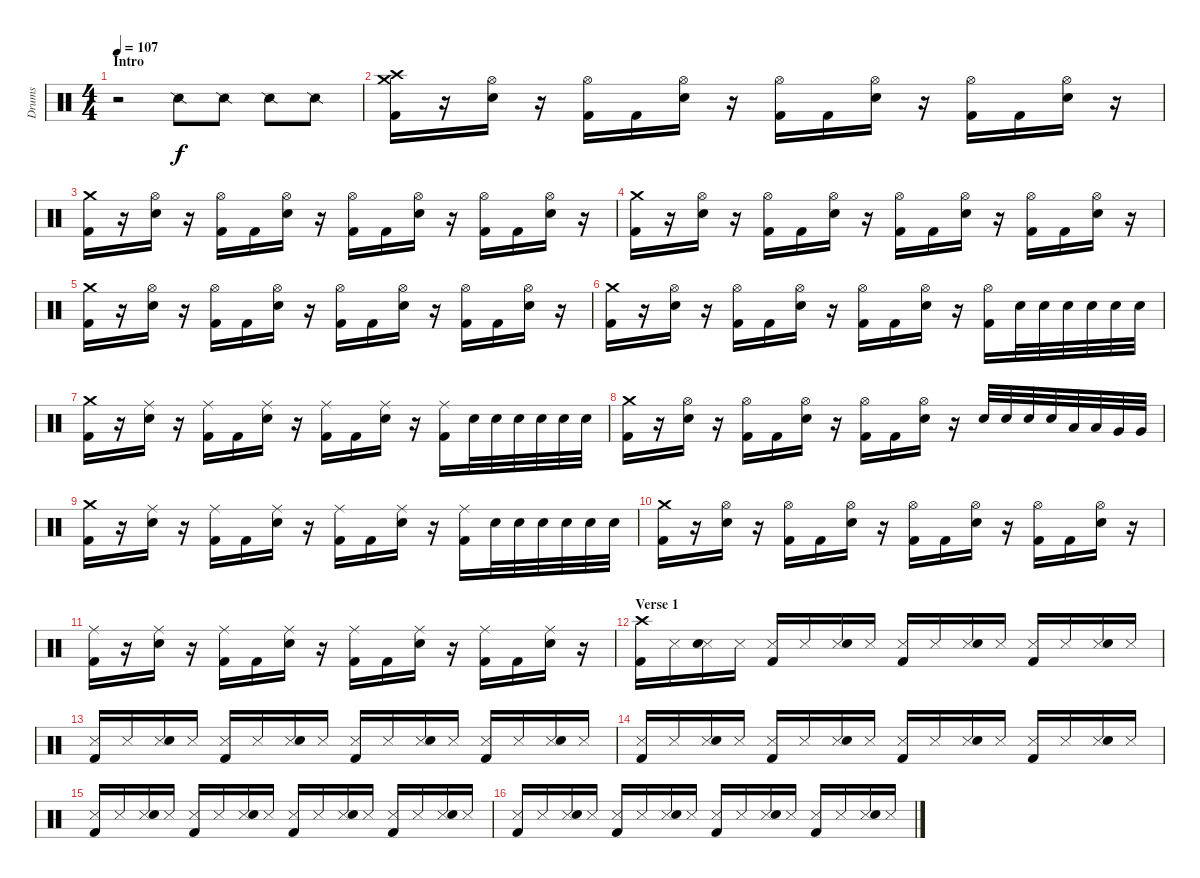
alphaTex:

\track ("Drums" "Drums") {instrument percussion}
\staff {score}
\articulation defaults
\ts (4 4)
\section ("" "Intro")
\tempo 107
\clef neutral
\ks c
r.2{dy f} "Snare (side stick) 2".8 "Snare (side stick) 2".8 "Snare (side stick) 2".8 "Snare (side stick) 2".8 |
("Crash high (hit)" "Crash medium (hit)" "Kick (hit) 2").16 r.16 ("Hi-Hat (open)" "Electric Snare (hit)").16 r.16 ("Hi-Hat (open)" "Kick (hit) 2").16 "Kick (hit) 2".16 ("Hi-Hat (open)" "Electric Snare (hit)").16 r.16 ("Hi-Hat (open)" "Kick (hit) 2").16 "Kick (hit) 2".16 ("Hi-Hat (open)" "Electric Snare (hit)").16 r.16 ("Hi-Hat (open)" "Kick (hit) 2").16 "Kick (hit) 2".16 ("Hi-Hat (open)" "Electric Snare (hit)").16 r.16 |
("Crash medium (hit)" "Kick (hit) 2").16 r.16 ("Hi-Hat (open)" "Electric Snare (hit)").16 r.16 ("Hi-Hat (open)" "Kick (hit) 2").16 "Kick (hit) 2".16 ("Hi-Hat (open)" "Electric Snare (hit)").16 r.16 ("Hi-Hat (open)" "Kick (hit) 2").16 "Kick (hit) 2".16 ("Hi-Hat (open)" "Electric Snare (hit)").16 r.16 ("Hi-Hat (open)" "Kick (hit) 2").16 "Kick (hit) 2".16 ("Hi-Hat (open)" "Electric Snare (hit)").16 r.16 |
("Crash medium (hit)" "Kick (hit) 2").16 r.16 ("Hi-Hat (open)" "Electric Snare (hit)").16 r.16 ("Hi-Hat (open)" "Kick (hit) 2").16 "Kick (hit) 2".16 ("Hi-Hat (open)" "Electric Snare (hit)").16 r.16 ("Hi-Hat (open)" "Kick (hit) 2").16 "Kick (hit) 2".16 ("Hi-Hat (open)" "Electric Snare (hit)").16 r.16 ("Hi-Hat (open)" "Kick (hit) 2").16 "Kick (hit) 2".16 ("Hi-Hat (open)" "Electric Snare (hit)").16 r.16 |
("Crash medium (hit)" "Kick (hit) 2").16 r.16 ("Hi-Hat (open)" "Electric Snare (hit)").16 r.16 ("Hi-Hat (open)" "Kick (hit) 2").16 "Kick (hit) 2".16 ("Hi-Hat (open)" "Electric Snare (hit)").16 r.16 ("Hi-Hat (open)" "Kick (hit) 2").16 "Kick (hit) 2".16 ("Hi-Hat (open)" "Electric Snare (hit)").16 r.16 ("Hi-Hat (open)" "Kick (hit) 2").16 "Kick (hit) 2".16 ("Hi-Hat (open)" "Electric Snare (hit)").16 r.16 |
("Crash medium (hit)" "Kick (hit) 2").16 r.16 ("Hi-Hat (open)" "Electric Snare (hit)").16 r.16 ("Hi-Hat (open)" "Kick (hit) 2").16 "Kick (hit) 2".16 ("Hi-Hat (open)" "Electric Snare (hit)").16 r.16 ("Hi-Hat (open)" "Kick (hit) 2").16 "Kick (hit) 2".16 ("Hi-Hat (open)" "Electric Snare (hit)").16 r.16 ("Hi-Hat (open)" "Kick (hit) 2").16 "Electric Snare (hit)".32 "Electric Snare (hit)".32 "Electric Snare (hit)".32 "Electric Snare (hit)".32 "Electric Snare (hit)".32 "Electric Snare (hit)".32 |
("Crash medium (hit)" "Kick (hit) 2").16 r.16 ("Ride (middle)" "Electric Snare (hit)").16 r.16 ("Ride (middle)" "Kick (hit) 2").16 "Kick (hit) 2".16 ("Ride (middle)" "Electric Snare (hit)").16 r.16 ("Ride (middle)" "Kick (hit) 2").16 "Kick (hit) 2".16 ("Ride (middle)" "Electric Snare (hit)").16 r.16 ("Ride (middle)" "Kick (hit) 2").16 "Electric Snare (hit)".32 "Electric Snare (hit)".32 "Electric Snare (hit)".32 "Electric Snare (hit)".32 "Electric Snare (hit)".32 "Electric Snare (hit)".32 |
("Crash medium (hit)" "Kick (hit) 2").16 r.16 ("Hi-Hat (open)" "Electric Snare (hit)").16 r.16 ("Hi-Hat (open)" "Kick (hit) 2").16 "Kick (hit) 2".16 ("Hi-Hat (open)" "Electric Snare (hit)").16 r.16 ("Hi-Hat (open)" "Kick (hit) 2").16 "Kick (hit) 2".16 ("Hi-Hat (open)" "Electric Snare (hit)").16 r.16 "Electric Snare (hit)".32 "Electric Snare (hit)".32 "Electric Snare (hit)".32 "Electric Snare (hit)".32 "Low Tom (hit)".32 "Low Tom (hit)".32 "Very Low Tom (hit)".32 "Very Low Tom (hit)".32 |
("Crash medium (hit)" "Kick (hit) 2").16 r.16 ("Ride (middle)" "Electric Snare (hit)").16 r.16 ("Ride (middle)" "Kick (hit) 2").16 "Kick (hit) 2".16 ("Ride (middle)" "Electric Snare (hit)").16 r.16 ("Ride (middle)" "Kick (hit) 2").16 "Kick (hit) 2".16 ("Ride (middle)" "Electric Snare (hit)").16 r.16 ("Ride (middle)" "Kick (hit) 2").16 "Electric Snare (hit)".32 "Electric Snare (hit)".32 "Electric Snare (hit)".32 "Electric Snare (hit)".32 "Electric Snare (hit)".32 "Electric Snare (hit)".32 |
("Crash medium (hit)" "Kick (hit) 2").16 r.16 ("Hi-Hat (open)" "Electric Snare (hit)").16 r.16 ("Hi-Hat (open)" "Kick (hit) 2").16 "Kick (hit) 2".16 ("Hi-Hat (open)" "Electric Snare (hit)").16 r.16 ("Hi-Hat (open)" "Kick (hit) 2").16 "Kick (hit) 2".16 ("Hi-Hat (open)" "Electric Snare (hit)").16 r.16 ("Hi-Hat (open)" "Kick (hit) 2").16 "Kick (hit) 2".16 ("Hi-Hat (open)" "Electric Snare (hit)").16 r.16 |
("Ride (middle)" "Kick (hit) 2").16 r.16 ("Ride (middle)" "Electric Snare (hit)").16 r.16 ("Ride (middle)" "Kick (hit) 2").16 "Kick (hit) 2".16 ("Ride (middle)" "Electric Snare (hit)").16 r.16 ("Ride (middle)" "Kick (hit) 2").16 "Kick (hit) 2".16 ("Ride (middle)" "Electric Snare (hit)").16 r.16 ("Ride (middle)" "Kick (hit) 2").16 "Kick (hit) 2".16 ("Ride (middle)" "Electric Snare (hit)").16 r.16 |
\section ("" "Verse 1")
("Crash high (hit)" "Kick (hit) 2").16 "Snare (side stick) 3".16 ("Snare (side stick) 3" "Electric Snare (hit)").16 "Snare (side stick) 3".16 ("Snare (side stick) 3" "Kick (hit) 2").16 "Snare (side stick) 3".16 ("Snare (side stick) 3" "Electric Snare (hit)").16 "Snare (side stick) 3".16 ("Snare (side stick) 3" "Kick (hit) 2").16 "Snare (side stick) 3".16 ("Snare (side stick) 3" "Electric Snare (hit)").16 "Snare (side stick) 3".16 ("Snare (side stick) 3" "Kick (hit) 2").16 "Snare (side stick) 3".16 ("Snare (side stick) 3" "Electric Snare (hit)").16 "Snare (side stick) 3".16 |
("Snare (side stick) 3" "Kick (hit) 2").16 "Snare (side stick) 3".16 ("Snare (side stick) 3" "Electric Snare (hit)").16 "Snare (side stick) 3".16 ("Snare (side stick) 3" "Kick (hit) 2").16 "Snare (side stick) 3".16 ("Snare (side stick) 3" "Electric Snare (hit)").16 "Snare (side stick) 3".16 ("Snare (side stick) 3" "Kick (hit) 2").16 "Snare (side stick) 3".16 ("Snare (side stick) 3" "Electric Snare (hit)").16 "Snare (side stick) 3".16 ("Snare (side stick) 3" "Kick (hit) 2").16 "Snare (side stick) 3".16 ("Snare (side stick) 3" "Electric Snare (hit)").16 "Snare (side stick) 3".16 |
("Snare (side stick) 3" "Kick (hit) 2").16 "Snare (side stick) 3".16 ("Snare (side stick) 3" "Electric Snare (hit)").16 "Snare (side stick) 3".16 ("Snare (side stick) 3" "Kick (hit) 2").16 "Snare (side stick) 3".16 ("Snare (side stick) 3" "Electric Snare (hit)").16 "Snare (side stick) 3".16 ("Snare (side stick) 3" "Kick (hit) 2").16 "Snare (side stick) 3".16 ("Snare (side stick) 3" "Electric Snare (hit)").16 "Snare (side stick) 3".16 ("Snare (side stick) 3" "Kick (hit) 2").16 "Snare (side stick) 3".16 ("Snare (side stick) 3" "Electric Snare (hit)").16 "Snare (side stick) 3".16 |
("Snare (side stick) 3" "Kick (hit) 2").16 "Snare (side stick) 3".16 ("Snare (side stick) 3" "Electric Snare (hit)").16 "Snare (side stick) 3".16 ("Snare (side stick) 3" "Kick (hit) 2").16 "Snare (side stick) 3".16 ("Snare (side stick) 3" "Electric Snare (hit)").16 "Snare (side stick) 3".16 ("Snare (side stick) 3" "Kick (hit) 2").16 "Snare (side stick) 3".16 ("Snare (side stick) 3" "Electric Snare (hit)").16 "Snare (side stick) 3".16 ("Snare (side stick) 3" "Kick (hit) 2").16 "Snare (side stick) 3".16 ("Snare (side stick) 3" "Electric Snare (hit)").16 "Snare (side stick) 3".16 |
("Snare (side stick) 3" "Kick (hit) 2").16 "Snare (side stick) 3".16 ("Snare (side stick) 3" "Electric Snare (hit)").16 "Snare (side stick) 3".16 ("Snare (side stick) 3" "Kick (hit) 2").16 "Snare (side stick) 3".16 ("Snare (side stick) 3" "Electric Snare (hit)").16 "Snare (side stick) 3".16 ("Snare (side stick) 3" "Kick (hit) 2").16 "Snare (side stick) 3".16 ("Snare (side stick) 3" "Electric Snare (hit)").16 "Snare (side stick) 3".16 ("Snare (side stick) 3" "Kick (hit) 2").16 "Snare (side stick) 3".16 ("Snare (side stick) 3" "Electric Snare (hit)").16 "Snare (side stick) 3".16
